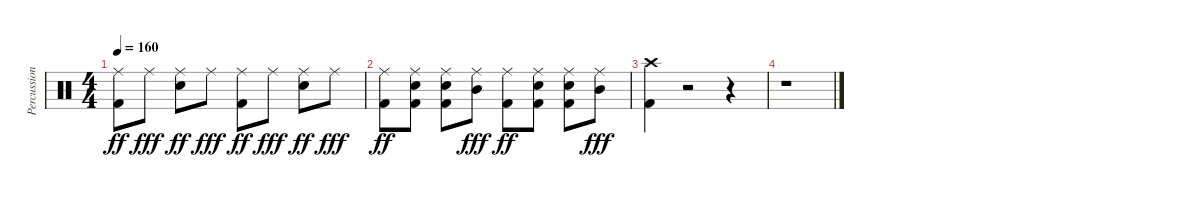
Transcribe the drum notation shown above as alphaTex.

\track ("Percussion" "Percussion") {instrument percussion}
\staff {score}
\articulation defaults
\ts (4 4)
\tempo 160
\clef neutral
\ks c
("Ride (middle)" "Kick (hit) 2").8{dy ff} "Ride (middle)".8{dy fff} ("Ride (middle)" "Snare (hit) 2").8{dy ff} "Ride (middle)".8{dy fff} ("Ride (middle)" "Kick (hit) 2").8{dy ff} "Ride (middle)".8{dy fff} ("Ride (middle)" "Snare (hit) 2").8{dy ff} "Ride (middle)".8{dy fff} |
("Ride (middle)" "Kick (hit) 2").8{dy ff} ("Ride (middle)" "Kick (hit) 2" "Snare (hit) 2").8 ("Ride (middle)" "Kick (hit) 2" "Snare (hit) 2").8 ("Mid Tom (hit)" "Ride (middle)").8{dy fff} ("Ride (middle)" "Kick (hit) 2").8{dy ff} ("Ride (middle)" "Kick (hit) 2" "Snare (hit) 2").8 ("Ride (middle)" "Kick (hit) 2" "Snare (hit) 2").8 ("Mid Tom (hit)" "Ride (middle)").8{dy fff} |
("Kick (hit) 2" "Crash high (hit)").4 r.2 r.4 |
r.1
